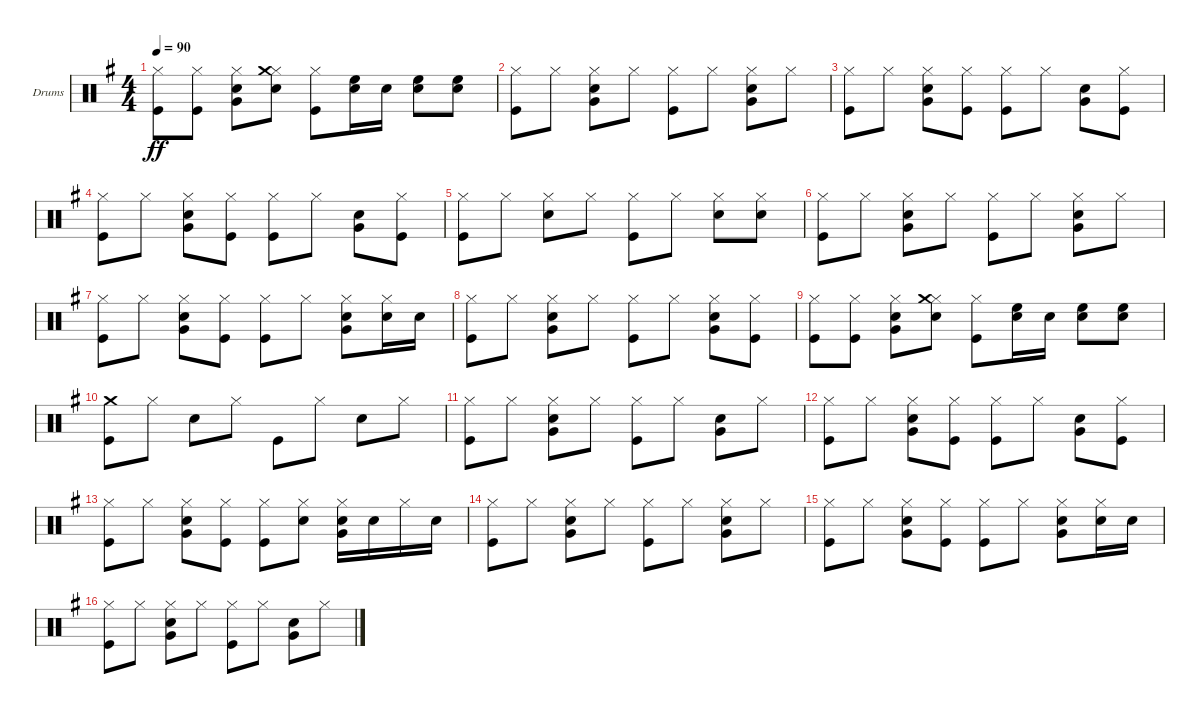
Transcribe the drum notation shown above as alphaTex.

\defaultSystemsLayout 4
\bracketExtendMode groupsimilarinstruments
\firstSystemTrackNameOrientation horizontal
\otherSystemsTrackNameOrientation horizontal
\track ("Drumkit" "Drums") {instrument percussion}
\staff {score}
\articulation defaults
\ts (4 4)
\tempo 90
\clef neutral
\ks g
("Kick (hit)" "Hi-Hat (closed)").8{dy ff} ("Kick (hit)" "Hi-Hat (closed)").8 ("Snare (hit) 2" "Hi-Hat (closed)" "Very Low Tom (hit)").8 ("Snare (hit) 2" "Hi-Hat (closed)" "Crash medium (hit)").8 ("Kick (hit)" "Hi-Hat (closed)").8 ("Snare (hit) 2" "High Floor Tom (hit)").16 "Snare (hit) 2".16 ("Snare (hit) 2" "High Floor Tom (hit)").8 ("Snare (hit) 2" "High Floor Tom (hit)").8 |
("Kick (hit)" "Hi-Hat (closed)").8 "Hi-Hat (closed)".8 ("Snare (hit) 2" "Hi-Hat (closed)" "Very Low Tom (hit)").8 "Hi-Hat (closed)".8 ("Kick (hit)" "Hi-Hat (closed)").8 "Hi-Hat (closed)".8 ("Snare (hit) 2" "Hi-Hat (closed)" "Very Low Tom (hit)").8 "Hi-Hat (closed)".8 |
("Kick (hit)" "Hi-Hat (closed)").8 "Hi-Hat (closed)".8 ("Snare (hit) 2" "Hi-Hat (closed)" "Very Low Tom (hit)").8 ("Kick (hit)" "Hi-Hat (closed)").8 ("Kick (hit)" "Hi-Hat (closed)").8 "Hi-Hat (closed)".8 ("Snare (hit) 2" "Very Low Tom (hit)").8 ("Kick (hit)" "Hi-Hat (closed)").8 |
("Kick (hit)" "Hi-Hat (closed)").8 "Hi-Hat (closed)".8 ("Snare (hit) 2" "Hi-Hat (closed)" "Very Low Tom (hit)").8 ("Kick (hit)" "Hi-Hat (closed)").8 ("Kick (hit)" "Hi-Hat (closed)").8 "Hi-Hat (closed)".8 ("Snare (hit) 2" "Very Low Tom (hit)").8 ("Kick (hit)" "Hi-Hat (closed)").8 |
("Kick (hit)" "Hi-Hat (closed)").8 "Hi-Hat (closed)".8 ("Snare (hit) 2" "Hi-Hat (closed)").8 "Hi-Hat (closed)".8 ("Kick (hit)" "Hi-Hat (closed)").8 "Hi-Hat (closed)".8 ("Snare (hit) 2" "Hi-Hat (closed)").8 ("Snare (hit) 2" "Hi-Hat (closed)").8 |
("Kick (hit)" "Hi-Hat (closed)").8 "Hi-Hat (closed)".8 ("Snare (hit) 2" "Hi-Hat (closed)" "Very Low Tom (hit)").8 "Hi-Hat (closed)".8 ("Kick (hit)" "Hi-Hat (closed)").8 "Hi-Hat (closed)".8 ("Snare (hit) 2" "Hi-Hat (closed)" "Very Low Tom (hit)").8 "Hi-Hat (closed)".8 |
("Kick (hit)" "Hi-Hat (closed)").8 "Hi-Hat (closed)".8 ("Snare (hit) 2" "Hi-Hat (closed)" "Very Low Tom (hit)").8 ("Kick (hit)" "Hi-Hat (closed)").8 ("Kick (hit)" "Hi-Hat (closed)").8 "Hi-Hat (closed)".8 ("Snare (hit) 2" "Hi-Hat (closed)" "Very Low Tom (hit)").8 ("Snare (hit) 2" "Hi-Hat (closed)").16 "Snare (hit) 2".16 |
("Kick (hit)" "Hi-Hat (closed)").8 "Hi-Hat (closed)".8 ("Snare (hit) 2" "Hi-Hat (closed)" "Very Low Tom (hit)").8 "Hi-Hat (closed)".8 ("Kick (hit)" "Hi-Hat (closed)").8 "Hi-Hat (closed)".8 ("Snare (hit) 2" "Hi-Hat (closed)" "Very Low Tom (hit)").8 ("Kick (hit)" "Hi-Hat (closed)").8 |
("Kick (hit)" "Hi-Hat (closed)").8 ("Kick (hit)" "Hi-Hat (closed)").8 ("Snare (hit) 2" "Hi-Hat (closed)" "Very Low Tom (hit)").8 ("Snare (hit) 2" "Hi-Hat (closed)" "Crash medium (hit)").8 ("Kick (hit)" "Hi-Hat (closed)").8 ("Snare (hit) 2" "High Floor Tom (hit)").16 "Snare (hit) 2".16 ("Snare (hit) 2" "High Floor Tom (hit)").8 ("Snare (hit) 2" "High Floor Tom (hit)").8 |
("Kick (hit)" "Crash medium (hit)").8 "Hi-Hat (closed)".8 "Snare (hit) 2".8 "Hi-Hat (closed)".8 "Kick (hit)".8 "Hi-Hat (closed)".8 "Snare (hit) 2".8 "Hi-Hat (closed)".8 |
("Kick (hit)" "Hi-Hat (closed)").8 "Hi-Hat (closed)".8 ("Snare (hit) 2" "Hi-Hat (closed)" "Very Low Tom (hit)").8 "Hi-Hat (closed)".8 ("Kick (hit)" "Hi-Hat (closed)").8 "Hi-Hat (closed)".8 ("Snare (hit) 2" "Very Low Tom (hit)").8 "Hi-Hat (closed)".8 |
("Kick (hit)" "Hi-Hat (closed)").8 "Hi-Hat (closed)".8 ("Snare (hit) 2" "Hi-Hat (closed)" "Very Low Tom (hit)").8 ("Kick (hit)" "Hi-Hat (closed)").8 ("Kick (hit)" "Hi-Hat (closed)").8 "Hi-Hat (closed)".8 ("Snare (hit) 2" "Very Low Tom (hit)").8 ("Kick (hit)" "Hi-Hat (closed)").8 |
("Kick (hit)" "Hi-Hat (closed)").8 "Hi-Hat (closed)".8 ("Snare (hit) 2" "Hi-Hat (closed)" "Very Low Tom (hit)").8 ("Kick (hit)" "Hi-Hat (closed)").8 ("Kick (hit)" "Hi-Hat (closed)").8 ("Snare (hit) 2" "Hi-Hat (closed)").8 ("Snare (hit) 2" "Hi-Hat (closed)" "Very Low Tom (hit)").16 "Snare (hit) 2".16 "Hi-Hat (closed)".16 "Snare (hit) 2".16 |
("Kick (hit)" "Hi-Hat (closed)").8 "Hi-Hat (closed)".8 ("Snare (hit) 2" "Hi-Hat (closed)" "Very Low Tom (hit)").8 "Hi-Hat (closed)".8 ("Kick (hit)" "Hi-Hat (closed)").8 "Hi-Hat (closed)".8 ("Snare (hit) 2" "Hi-Hat (closed)" "Very Low Tom (hit)").8 "Hi-Hat (closed)".8 |
("Kick (hit)" "Hi-Hat (closed)").8 "Hi-Hat (closed)".8 ("Snare (hit) 2" "Hi-Hat (closed)" "Very Low Tom (hit)").8 ("Kick (hit)" "Hi-Hat (closed)").8 ("Kick (hit)" "Hi-Hat (closed)").8 "Hi-Hat (closed)".8 ("Snare (hit) 2" "Hi-Hat (closed)" "Very Low Tom (hit)").8 ("Snare (hit) 2" "Hi-Hat (closed)").16 "Snare (hit) 2".16 |
("Kick (hit)" "Hi-Hat (closed)").8 "Hi-Hat (closed)".8 ("Snare (hit) 2" "Hi-Hat (closed)" "Very Low Tom (hit)").8 "Hi-Hat (closed)".8 ("Kick (hit)" "Hi-Hat (closed)").8 "Hi-Hat (closed)".8 ("Snare (hit) 2" "Very Low Tom (hit)").8 "Hi-Hat (closed)".8
